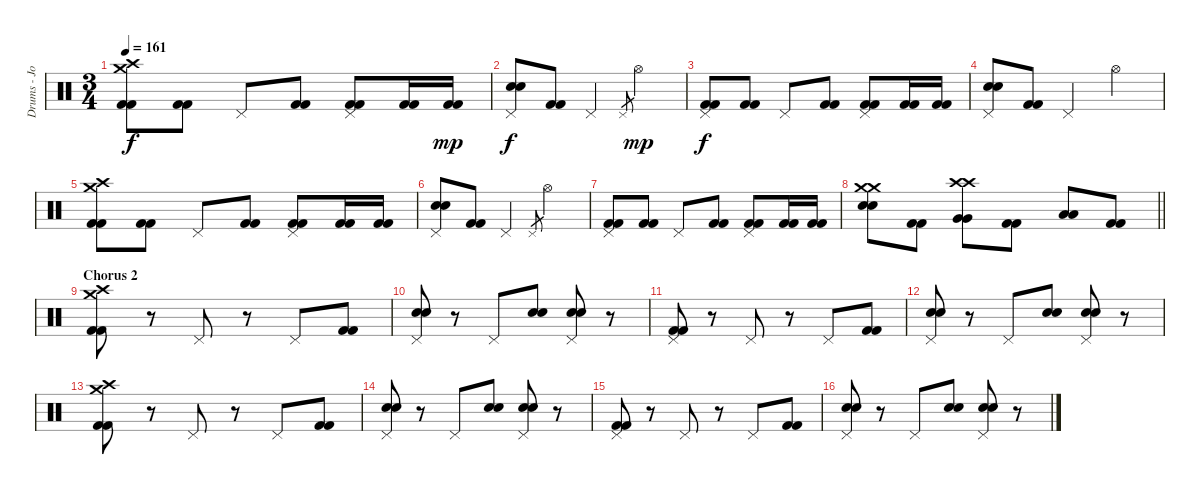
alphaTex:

\track ("Drums - Jon Wilkes" "Drums - Jo") {instrument percussion}
\staff {score}
\articulation defaults
\ts (3 4)
\tempo 161
\clef neutral
\ks c
("Crash medium (hit)" "Crash high (hit)" "Kick (hit) 2" "Kick (hit) 2").8{dy f} ("Kick (hit) 2" "Kick (hit) 2").8 "Pedal Hi-Hat (hit)".8 ("Kick (hit) 2" "Kick (hit) 2").8 ("Pedal Hi-Hat (hit)" "Kick (hit) 2" "Kick (hit) 2").8 ("Kick (hit) 2" "Kick (hit) 2").16 ("Kick (hit) 2" "Kick (hit) 2").16{dy mp} |
("Pedal Hi-Hat (hit)" "Electric Snare (hit)" "Electric Snare (hit)").8{dy f} ("Kick (hit) 2" "Kick (hit) 2").8 "Pedal Hi-Hat (hit)".4 "Pedal Hi-Hat (hit)".8{gr} "Hi-Hat (open)".4{dy mp} |
("Pedal Hi-Hat (hit)" "Kick (hit) 2" "Kick (hit) 2").8{dy f} ("Kick (hit) 2" "Kick (hit) 2").8 "Pedal Hi-Hat (hit)".8 ("Kick (hit) 2" "Kick (hit) 2").8 ("Pedal Hi-Hat (hit)" "Kick (hit) 2" "Kick (hit) 2").8 ("Kick (hit) 2" "Kick (hit) 2").16 ("Kick (hit) 2" "Kick (hit) 2").16 |
("Pedal Hi-Hat (hit)" "Electric Snare (hit)" "Electric Snare (hit)").8 ("Kick (hit) 2" "Kick (hit) 2").8 "Pedal Hi-Hat (hit)".4 "Hi-Hat (open)".4 |
("Crash medium (hit)" "Crash high (hit)" "Kick (hit) 2" "Kick (hit) 2").8 ("Kick (hit) 2" "Kick (hit) 2").8 "Pedal Hi-Hat (hit)".8 ("Kick (hit) 2" "Kick (hit) 2").8 ("Pedal Hi-Hat (hit)" "Kick (hit) 2" "Kick (hit) 2").8 ("Kick (hit) 2" "Kick (hit) 2").16 ("Kick (hit) 2" "Kick (hit) 2").16 |
("Pedal Hi-Hat (hit)" "Electric Snare (hit)" "Electric Snare (hit)").8 ("Kick (hit) 2" "Kick (hit) 2").8 "Pedal Hi-Hat (hit)".4 "Pedal Hi-Hat (hit)".8{gr} "Hi-Hat (open)".4 |
("Pedal Hi-Hat (hit)" "Kick (hit) 2" "Kick (hit) 2").8 ("Kick (hit) 2" "Kick (hit) 2").8 "Pedal Hi-Hat (hit)".8 ("Kick (hit) 2" "Kick (hit) 2").8 ("Pedal Hi-Hat (hit)" "Kick (hit) 2" "Kick (hit) 2").8 ("Kick (hit) 2" "Kick (hit) 2").16 ("Kick (hit) 2" "Kick (hit) 2").16 |
\barLineRight lightlight
("Crash medium (hit)" "Crash medium (hit)" "Electric Snare (hit)" "Electric Snare (hit)").8 ("Kick (hit) 2" "Kick (hit) 2").8 ("Crash high (hit)" "Crash high (hit)" "Very Low Tom (hit)" "Very Low Tom (hit)").8 ("Kick (hit) 2" "Kick (hit) 2").8 ("Low Floor Tom (hit)" "Low Floor Tom (hit)").8 ("Kick (hit) 2" "Kick (hit) 2").8 |
\section ("" "Chorus 2")
("Crash medium (hit)" "Crash high (hit)" "Kick (hit) 2" "Kick (hit) 2").8 r.8 "Pedal Hi-Hat (hit)".8 r.8 "Pedal Hi-Hat (hit)".8 ("Kick (hit) 2" "Kick (hit) 2").8 |
("Pedal Hi-Hat (hit)" "Electric Snare (hit)" "Electric Snare (hit)").8 r.8 "Pedal Hi-Hat (hit)".8 ("Electric Snare (hit)" "Electric Snare (hit)").8 ("Pedal Hi-Hat (hit)" "Electric Snare (hit)" "Electric Snare (hit)").8 r.8 |
("Pedal Hi-Hat (hit)" "Kick (hit) 2" "Kick (hit) 2").8 r.8 "Pedal Hi-Hat (hit)".8 r.8 "Pedal Hi-Hat (hit)".8 ("Kick (hit) 2" "Kick (hit) 2").8 |
("Pedal Hi-Hat (hit)" "Electric Snare (hit)" "Electric Snare (hit)").8 r.8 "Pedal Hi-Hat (hit)".8 ("Electric Snare (hit)" "Electric Snare (hit)").8 ("Pedal Hi-Hat (hit)" "Electric Snare (hit)" "Electric Snare (hit)").8 r.8 |
("Crash medium (hit)" "Crash high (hit)" "Kick (hit) 2" "Kick (hit) 2").8 r.8 "Pedal Hi-Hat (hit)".8 r.8 "Pedal Hi-Hat (hit)".8 ("Kick (hit) 2" "Kick (hit) 2").8 |
("Pedal Hi-Hat (hit)" "Electric Snare (hit)" "Electric Snare (hit)").8 r.8 "Pedal Hi-Hat (hit)".8 ("Electric Snare (hit)" "Electric Snare (hit)").8 ("Pedal Hi-Hat (hit)" "Electric Snare (hit)" "Electric Snare (hit)").8 r.8 |
("Pedal Hi-Hat (hit)" "Kick (hit) 2" "Kick (hit) 2").8 r.8 "Pedal Hi-Hat (hit)".8 r.8 "Pedal Hi-Hat (hit)".8 ("Kick (hit) 2" "Kick (hit) 2").8 |
("Pedal Hi-Hat (hit)" "Electric Snare (hit)" "Electric Snare (hit)").8 r.8 "Pedal Hi-Hat (hit)".8 ("Electric Snare (hit)" "Electric Snare (hit)").8 ("Pedal Hi-Hat (hit)" "Electric Snare (hit)" "Electric Snare (hit)").8 r.8
